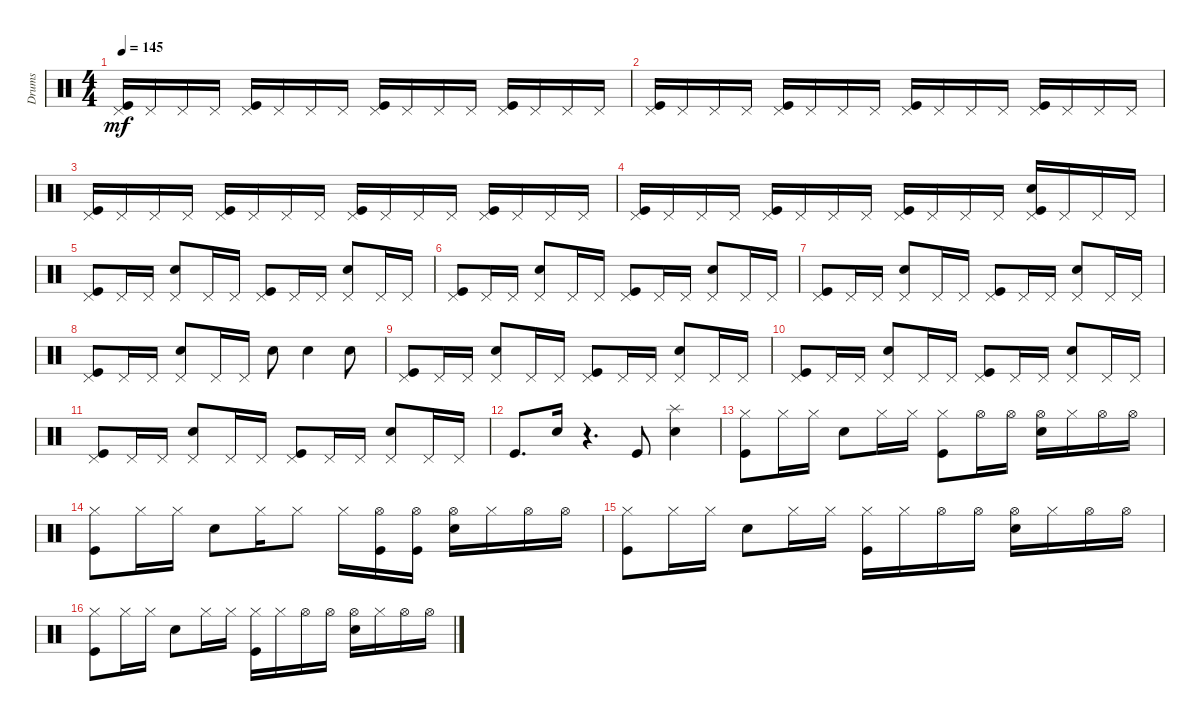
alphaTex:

\track ("Drums" "Drums") {instrument percussion}
\staff {score}
\articulation defaults
\ts (4 4)
\tempo 145
\clef neutral
\ks c
("Kick (hit)" "Pedal Hi-Hat (hit)").16{dy mf} "Pedal Hi-Hat (hit)".16 "Pedal Hi-Hat (hit)".16 "Pedal Hi-Hat (hit)".16 ("Kick (hit)" "Pedal Hi-Hat (hit)").16 "Pedal Hi-Hat (hit)".16 "Pedal Hi-Hat (hit)".16 "Pedal Hi-Hat (hit)".16 ("Kick (hit)" "Pedal Hi-Hat (hit)").16 "Pedal Hi-Hat (hit)".16 "Pedal Hi-Hat (hit)".16 "Pedal Hi-Hat (hit)".16 ("Kick (hit)" "Pedal Hi-Hat (hit)").16 "Pedal Hi-Hat (hit)".16 "Pedal Hi-Hat (hit)".16 "Pedal Hi-Hat (hit)".16 |
("Kick (hit)" "Pedal Hi-Hat (hit)").16 "Pedal Hi-Hat (hit)".16 "Pedal Hi-Hat (hit)".16 "Pedal Hi-Hat (hit)".16 ("Kick (hit)" "Pedal Hi-Hat (hit)").16 "Pedal Hi-Hat (hit)".16 "Pedal Hi-Hat (hit)".16 "Pedal Hi-Hat (hit)".16 ("Kick (hit)" "Pedal Hi-Hat (hit)").16 "Pedal Hi-Hat (hit)".16 "Pedal Hi-Hat (hit)".16 "Pedal Hi-Hat (hit)".16 ("Kick (hit)" "Pedal Hi-Hat (hit)").16 "Pedal Hi-Hat (hit)".16 "Pedal Hi-Hat (hit)".16 "Pedal Hi-Hat (hit)".16 |
("Kick (hit)" "Pedal Hi-Hat (hit)").16 "Pedal Hi-Hat (hit)".16 "Pedal Hi-Hat (hit)".16 "Pedal Hi-Hat (hit)".16 ("Kick (hit)" "Pedal Hi-Hat (hit)").16 "Pedal Hi-Hat (hit)".16 "Pedal Hi-Hat (hit)".16 "Pedal Hi-Hat (hit)".16 ("Kick (hit)" "Pedal Hi-Hat (hit)").16 "Pedal Hi-Hat (hit)".16 "Pedal Hi-Hat (hit)".16 "Pedal Hi-Hat (hit)".16 ("Kick (hit)" "Pedal Hi-Hat (hit)").16 "Pedal Hi-Hat (hit)".16 "Pedal Hi-Hat (hit)".16 "Pedal Hi-Hat (hit)".16 |
("Kick (hit)" "Pedal Hi-Hat (hit)").16 "Pedal Hi-Hat (hit)".16 "Pedal Hi-Hat (hit)".16 "Pedal Hi-Hat (hit)".16 ("Kick (hit)" "Pedal Hi-Hat (hit)").16 "Pedal Hi-Hat (hit)".16 "Pedal Hi-Hat (hit)".16 "Pedal Hi-Hat (hit)".16 ("Kick (hit)" "Pedal Hi-Hat (hit)").16 "Pedal Hi-Hat (hit)".16 "Pedal Hi-Hat (hit)".16 "Pedal Hi-Hat (hit)".16 ("Kick (hit)" "Pedal Hi-Hat (hit)" "Snare (hit) 2").16 "Pedal Hi-Hat (hit)".16 "Pedal Hi-Hat (hit)".16 "Pedal Hi-Hat (hit)".16 |
("Kick (hit)" "Pedal Hi-Hat (hit)").8 "Pedal Hi-Hat (hit)".16 "Pedal Hi-Hat (hit)".16 ("Snare (hit) 2" "Pedal Hi-Hat (hit)").8 "Pedal Hi-Hat (hit)".16 "Pedal Hi-Hat (hit)".16 ("Kick (hit)" "Pedal Hi-Hat (hit)").8 "Pedal Hi-Hat (hit)".16 "Pedal Hi-Hat (hit)".16 ("Snare (hit) 2" "Pedal Hi-Hat (hit)").8 "Pedal Hi-Hat (hit)".16 "Pedal Hi-Hat (hit)".16 |
("Kick (hit)" "Pedal Hi-Hat (hit)").8 "Pedal Hi-Hat (hit)".16 "Pedal Hi-Hat (hit)".16 ("Snare (hit) 2" "Pedal Hi-Hat (hit)").8 "Pedal Hi-Hat (hit)".16 "Pedal Hi-Hat (hit)".16 ("Kick (hit)" "Pedal Hi-Hat (hit)").8 "Pedal Hi-Hat (hit)".16 "Pedal Hi-Hat (hit)".16 ("Snare (hit) 2" "Pedal Hi-Hat (hit)").8 "Pedal Hi-Hat (hit)".16 "Pedal Hi-Hat (hit)".16 |
("Kick (hit)" "Pedal Hi-Hat (hit)").8 "Pedal Hi-Hat (hit)".16 "Pedal Hi-Hat (hit)".16 ("Snare (hit) 2" "Pedal Hi-Hat (hit)").8 "Pedal Hi-Hat (hit)".16 "Pedal Hi-Hat (hit)".16 ("Kick (hit)" "Pedal Hi-Hat (hit)").8 "Pedal Hi-Hat (hit)".16 "Pedal Hi-Hat (hit)".16 ("Snare (hit) 2" "Pedal Hi-Hat (hit)").8 "Pedal Hi-Hat (hit)".16 "Pedal Hi-Hat (hit)".16 |
("Kick (hit)" "Pedal Hi-Hat (hit)").8 "Pedal Hi-Hat (hit)".16 "Pedal Hi-Hat (hit)".16 ("Snare (hit) 2" "Pedal Hi-Hat (hit)").8 "Pedal Hi-Hat (hit)".16 "Pedal Hi-Hat (hit)".16 "Snare (hit) 2".8 "Snare (hit) 2".4 "Snare (hit) 2".8 |
("Kick (hit)" "Pedal Hi-Hat (hit)").8 "Pedal Hi-Hat (hit)".16 "Pedal Hi-Hat (hit)".16 ("Snare (hit) 2" "Pedal Hi-Hat (hit)").8 "Pedal Hi-Hat (hit)".16 "Pedal Hi-Hat (hit)".16 ("Kick (hit)" "Pedal Hi-Hat (hit)").8 "Pedal Hi-Hat (hit)".16 "Pedal Hi-Hat (hit)".16 ("Snare (hit) 2" "Pedal Hi-Hat (hit)").8 "Pedal Hi-Hat (hit)".16 "Pedal Hi-Hat (hit)".16 |
("Kick (hit)" "Pedal Hi-Hat (hit)").8 "Pedal Hi-Hat (hit)".16 "Pedal Hi-Hat (hit)".16 ("Snare (hit) 2" "Pedal Hi-Hat (hit)").8 "Pedal Hi-Hat (hit)".16 "Pedal Hi-Hat (hit)".16 ("Kick (hit)" "Pedal Hi-Hat (hit)").8 "Pedal Hi-Hat (hit)".16 "Pedal Hi-Hat (hit)".16 ("Snare (hit) 2" "Pedal Hi-Hat (hit)").8 "Pedal Hi-Hat (hit)".16 "Pedal Hi-Hat (hit)".16 |
("Kick (hit)" "Pedal Hi-Hat (hit)").8 "Pedal Hi-Hat (hit)".16 "Pedal Hi-Hat (hit)".16 ("Snare (hit) 2" "Pedal Hi-Hat (hit)").8 "Pedal Hi-Hat (hit)".16 "Pedal Hi-Hat (hit)".16 ("Kick (hit)" "Pedal Hi-Hat (hit)").8 "Pedal Hi-Hat (hit)".16 "Pedal Hi-Hat (hit)".16 ("Snare (hit) 2" "Pedal Hi-Hat (hit)").8 "Pedal Hi-Hat (hit)".16 "Pedal Hi-Hat (hit)".16 |
"Kick (hit)".8{d} "Snare (hit) 2".16 r.4{d} "Kick (hit)".8 ("Snare (hit) 2" "Splash (hit)").4 |
("Kick (hit)" "Hi-Hat (closed)").8 "Hi-Hat (closed)".16 "Hi-Hat (closed)".16 "Snare (hit) 2".8 "Hi-Hat (closed)".16 "Hi-Hat (closed)".16 ("Kick (hit)" "Hi-Hat (closed)").8 "Hi-Hat (open)".16 "Hi-Hat (open)".16 ("Snare (hit) 2" "Hi-Hat (open)").16 "Hi-Hat (closed)".16 "Hi-Hat (open)".16 "Hi-Hat (open)".16 |
("Kick (hit)" "Hi-Hat (closed)").8 "Hi-Hat (closed)".16 "Hi-Hat (closed)".16 "Snare (hit) 2".8 "Hi-Hat (closed)".16 "Hi-Hat (closed)".8 "Hi-Hat (closed)".16 ("Hi-Hat (open)" "Kick (hit)").16 ("Hi-Hat (open)" "Kick (hit)").16 ("Snare (hit) 2" "Hi-Hat (open)").16 "Hi-Hat (closed)".16 "Hi-Hat (open)".16 "Hi-Hat (open)".16 |
("Kick (hit)" "Hi-Hat (closed)").8 "Hi-Hat (closed)".16 "Hi-Hat (closed)".16 "Snare (hit) 2".8 "Hi-Hat (closed)".16 "Hi-Hat (closed)".16 ("Kick (hit)" "Hi-Hat (closed)").16 "Hi-Hat (closed)".16 "Hi-Hat (open)".16 "Hi-Hat (open)".16 ("Snare (hit) 2" "Hi-Hat (open)").16 "Hi-Hat (closed)".16 "Hi-Hat (open)".16 "Hi-Hat (open)".16 |
("Kick (hit)" "Hi-Hat (closed)").8 "Hi-Hat (closed)".16 "Hi-Hat (closed)".16 "Snare (hit) 2".8 "Hi-Hat (closed)".16 "Hi-Hat (closed)".16 ("Kick (hit)" "Hi-Hat (closed)").16 "Hi-Hat (closed)".16 "Hi-Hat (open)".16 "Hi-Hat (open)".16 ("Snare (hit) 2" "Hi-Hat (open)").16 "Hi-Hat (closed)".16 "Hi-Hat (open)".16 "Hi-Hat (open)".16
